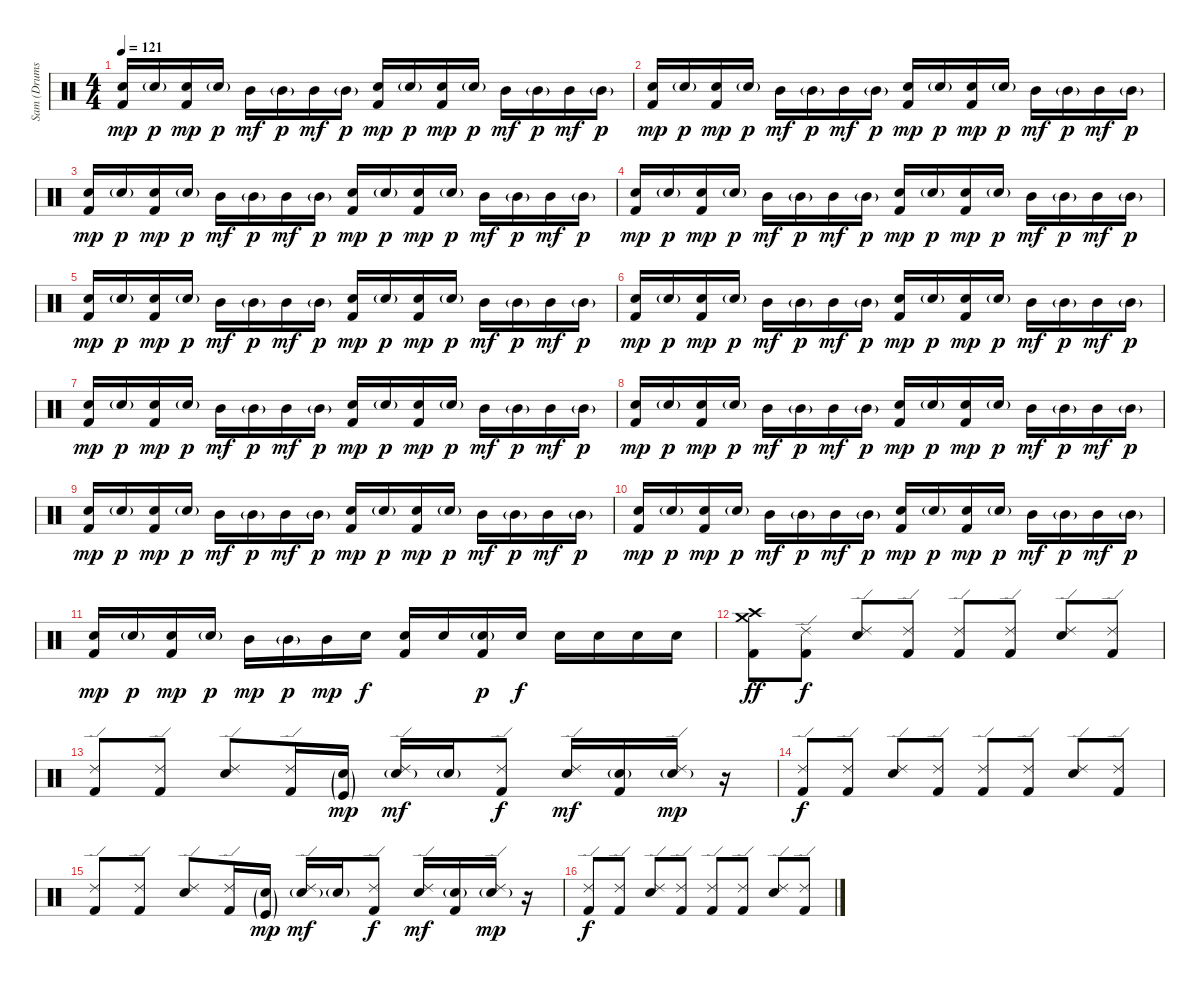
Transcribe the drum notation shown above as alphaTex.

\track ("Sam (Drums)" "Sam (Drums") {instrument percussion}
\staff {score}
\articulation defaults
\ts (4 4)
\tempo 121
\clef neutral
\ks c
("Snare (hit) 2" "Kick (hit) 2").16{dy mp} "Snare (hit) 2"{g}.16{dy p} ("Snare (hit) 2" "Kick (hit) 2").16{dy mp} "Snare (hit) 2"{g}.16{dy p} "Mid Tom (hit)".16{dy mf} "Mid Tom (hit)"{g}.16{dy p} "Mid Tom (hit)".16{dy mf} "Mid Tom (hit)"{g}.16{dy p} ("Snare (hit) 2" "Kick (hit) 2").16{dy mp} "Snare (hit) 2"{g}.16{dy p} ("Snare (hit) 2" "Kick (hit) 2").16{dy mp} "Snare (hit) 2"{g}.16{dy p} "Mid Tom (hit)".16{dy mf} "Mid Tom (hit)"{g}.16{dy p} "Mid Tom (hit)".16{dy mf} "Mid Tom (hit)"{g}.16{dy p} |
("Snare (hit) 2" "Kick (hit) 2").16{dy mp} "Snare (hit) 2"{g}.16{dy p} ("Snare (hit) 2" "Kick (hit) 2").16{dy mp} "Snare (hit) 2"{g}.16{dy p} "Mid Tom (hit)".16{dy mf} "Mid Tom (hit)"{g}.16{dy p} "Mid Tom (hit)".16{dy mf} "Mid Tom (hit)"{g}.16{dy p} ("Snare (hit) 2" "Kick (hit) 2").16{dy mp} "Snare (hit) 2"{g}.16{dy p} ("Snare (hit) 2" "Kick (hit) 2").16{dy mp} "Snare (hit) 2"{g}.16{dy p} "Mid Tom (hit)".16{dy mf} "Mid Tom (hit)"{g}.16{dy p} "Mid Tom (hit)".16{dy mf} "Mid Tom (hit)"{g}.16{dy p} |
("Snare (hit) 2" "Kick (hit) 2").16{dy mp} "Snare (hit) 2"{g}.16{dy p} ("Snare (hit) 2" "Kick (hit) 2").16{dy mp} "Snare (hit) 2"{g}.16{dy p} "Mid Tom (hit)".16{dy mf} "Mid Tom (hit)"{g}.16{dy p} "Mid Tom (hit)".16{dy mf} "Mid Tom (hit)"{g}.16{dy p} ("Snare (hit) 2" "Kick (hit) 2").16{dy mp} "Snare (hit) 2"{g}.16{dy p} ("Snare (hit) 2" "Kick (hit) 2").16{dy mp} "Snare (hit) 2"{g}.16{dy p} "Mid Tom (hit)".16{dy mf} "Mid Tom (hit)"{g}.16{dy p} "Mid Tom (hit)".16{dy mf} "Mid Tom (hit)"{g}.16{dy p} |
("Snare (hit) 2" "Kick (hit) 2").16{dy mp} "Snare (hit) 2"{g}.16{dy p} ("Snare (hit) 2" "Kick (hit) 2").16{dy mp} "Snare (hit) 2"{g}.16{dy p} "Mid Tom (hit)".16{dy mf} "Mid Tom (hit)"{g}.16{dy p} "Mid Tom (hit)".16{dy mf} "Mid Tom (hit)"{g}.16{dy p} ("Snare (hit) 2" "Kick (hit) 2").16{dy mp} "Snare (hit) 2"{g}.16{dy p} ("Snare (hit) 2" "Kick (hit) 2").16{dy mp} "Snare (hit) 2"{g}.16{dy p} "Mid Tom (hit)".16{dy mf} "Mid Tom (hit)"{g}.16{dy p} "Mid Tom (hit)".16{dy mf} "Mid Tom (hit)"{g}.16{dy p} |
("Snare (hit) 2" "Kick (hit) 2").16{dy mp} "Snare (hit) 2"{g}.16{dy p} ("Snare (hit) 2" "Kick (hit) 2").16{dy mp} "Snare (hit) 2"{g}.16{dy p} "Mid Tom (hit)".16{dy mf} "Mid Tom (hit)"{g}.16{dy p} "Mid Tom (hit)".16{dy mf} "Mid Tom (hit)"{g}.16{dy p} ("Snare (hit) 2" "Kick (hit) 2").16{dy mp} "Snare (hit) 2"{g}.16{dy p} ("Snare (hit) 2" "Kick (hit) 2").16{dy mp} "Snare (hit) 2"{g}.16{dy p} "Mid Tom (hit)".16{dy mf} "Mid Tom (hit)"{g}.16{dy p} "Mid Tom (hit)".16{dy mf} "Mid Tom (hit)"{g}.16{dy p} |
("Snare (hit) 2" "Kick (hit) 2").16{dy mp} "Snare (hit) 2"{g}.16{dy p} ("Snare (hit) 2" "Kick (hit) 2").16{dy mp} "Snare (hit) 2"{g}.16{dy p} "Mid Tom (hit)".16{dy mf} "Mid Tom (hit)"{g}.16{dy p} "Mid Tom (hit)".16{dy mf} "Mid Tom (hit)"{g}.16{dy p} ("Snare (hit) 2" "Kick (hit) 2").16{dy mp} "Snare (hit) 2"{g}.16{dy p} ("Snare (hit) 2" "Kick (hit) 2").16{dy mp} "Snare (hit) 2"{g}.16{dy p} "Mid Tom (hit)".16{dy mf} "Mid Tom (hit)"{g}.16{dy p} "Mid Tom (hit)".16{dy mf} "Mid Tom (hit)"{g}.16{dy p} |
("Snare (hit) 2" "Kick (hit) 2").16{dy mp} "Snare (hit) 2"{g}.16{dy p} ("Snare (hit) 2" "Kick (hit) 2").16{dy mp} "Snare (hit) 2"{g}.16{dy p} "Mid Tom (hit)".16{dy mf} "Mid Tom (hit)"{g}.16{dy p} "Mid Tom (hit)".16{dy mf} "Mid Tom (hit)"{g}.16{dy p} ("Snare (hit) 2" "Kick (hit) 2").16{dy mp} "Snare (hit) 2"{g}.16{dy p} ("Snare (hit) 2" "Kick (hit) 2").16{dy mp} "Snare (hit) 2"{g}.16{dy p} "Mid Tom (hit)".16{dy mf} "Mid Tom (hit)"{g}.16{dy p} "Mid Tom (hit)".16{dy mf} "Mid Tom (hit)"{g}.16{dy p} |
("Snare (hit) 2" "Kick (hit) 2").16{dy mp} "Snare (hit) 2"{g}.16{dy p} ("Snare (hit) 2" "Kick (hit) 2").16{dy mp} "Snare (hit) 2"{g}.16{dy p} "Mid Tom (hit)".16{dy mf} "Mid Tom (hit)"{g}.16{dy p} "Mid Tom (hit)".16{dy mf} "Mid Tom (hit)"{g}.16{dy p} ("Snare (hit) 2" "Kick (hit) 2").16{dy mp} "Snare (hit) 2"{g}.16{dy p} ("Snare (hit) 2" "Kick (hit) 2").16{dy mp} "Snare (hit) 2"{g}.16{dy p} "Mid Tom (hit)".16{dy mf} "Mid Tom (hit)"{g}.16{dy p} "Mid Tom (hit)".16{dy mf} "Mid Tom (hit)"{g}.16{dy p} |
("Snare (hit) 2" "Kick (hit) 2").16{dy mp} "Snare (hit) 2"{g}.16{dy p} ("Snare (hit) 2" "Kick (hit) 2").16{dy mp} "Snare (hit) 2"{g}.16{dy p} "Mid Tom (hit)".16{dy mf} "Mid Tom (hit)"{g}.16{dy p} "Mid Tom (hit)".16{dy mf} "Mid Tom (hit)"{g}.16{dy p} ("Snare (hit) 2" "Kick (hit) 2").16{dy mp} "Snare (hit) 2"{g}.16{dy p} ("Snare (hit) 2" "Kick (hit) 2").16{dy mp} "Snare (hit) 2"{g}.16{dy p} "Mid Tom (hit)".16{dy mf} "Mid Tom (hit)"{g}.16{dy p} "Mid Tom (hit)".16{dy mf} "Mid Tom (hit)"{g}.16{dy p} |
("Snare (hit) 2" "Kick (hit) 2").16{dy mp} "Snare (hit) 2"{g}.16{dy p} ("Snare (hit) 2" "Kick (hit) 2").16{dy mp} "Snare (hit) 2"{g}.16{dy p} "Mid Tom (hit)".16{dy mf} "Mid Tom (hit)"{g}.16{dy p} "Mid Tom (hit)".16{dy mf} "Mid Tom (hit)"{g}.16{dy p} ("Snare (hit) 2" "Kick (hit) 2").16{dy mp} "Snare (hit) 2"{g}.16{dy p} ("Snare (hit) 2" "Kick (hit) 2").16{dy mp} "Snare (hit) 2"{g}.16{dy p} "Mid Tom (hit)".16{dy mf} "Mid Tom (hit)"{g}.16{dy p} "Mid Tom (hit)".16{dy mf} "Mid Tom (hit)"{g}.16{dy p} |
("Snare (hit) 2" "Kick (hit) 2").16{dy mp} "Snare (hit) 2"{g}.16{dy p} ("Snare (hit) 2" "Kick (hit) 2").16{dy mp} "Snare (hit) 2"{g}.16{dy p} "Mid Tom (hit)".16{dy mp} "Mid Tom (hit)"{g}.16{dy p} "Mid Tom (hit)".16{dy mp} "Snare (hit) 2".16{dy f} ("Snare (hit) 2" "Kick (hit) 2").16 "Snare (hit) 2".16 ("Snare (hit) 2"{g} "Kick (hit) 2").16{dy p} "Snare (hit) 2".16{dy f} "Snare (hit) 2".16 "Snare (hit) 2".16 "Snare (hit) 2".16 "Snare (hit) 2".16 |
("Crash high (hit)" "Crash medium (hit)" "Kick (hit) 2").8{dy ff} ("Ride (edge) 2" "Kick (hit) 2").8{dy f} ("Ride (edge) 2" "Snare (hit) 2").8 ("Ride (edge) 2" "Kick (hit) 2").8 ("Ride (edge) 2" "Kick (hit) 2").8 ("Ride (edge) 2" "Kick (hit) 2").8 ("Ride (edge) 2" "Snare (hit) 2").8 ("Ride (edge) 2" "Kick (hit) 2").8 |
("Ride (edge) 2" "Kick (hit) 2").8 ("Ride (edge) 2" "Kick (hit) 2").8 ("Ride (edge) 2" "Snare (hit) 2").8 ("Ride (edge) 2" "Kick (hit) 2").16 ("Snare (hit) 2"{g} "Kick (hit)"{g}).16{dy mp} ("Ride (edge) 2" "Snare (hit) 2"{g}).16{dy mf} "Snare (hit) 2"{g}.16 ("Ride (edge) 2" "Kick (hit) 2").8{dy f} ("Ride (edge) 2" "Snare (hit) 2").16{dy mf} ("Snare (hit) 2"{g} "Kick (hit) 2").16 ("Ride (edge) 2" "Snare (hit) 2"{g}).16{dy mp} r.16 |
("Ride (edge) 2" "Kick (hit) 2").8{dy f} ("Ride (edge) 2" "Kick (hit) 2").8 ("Ride (edge) 2" "Snare (hit) 2").8 ("Ride (edge) 2" "Kick (hit) 2").8 ("Ride (edge) 2" "Kick (hit) 2").8 ("Ride (edge) 2" "Kick (hit) 2").8 ("Ride (edge) 2" "Snare (hit) 2").8 ("Ride (edge) 2" "Kick (hit) 2").8 |
("Ride (edge) 2" "Kick (hit) 2").8 ("Ride (edge) 2" "Kick (hit) 2").8 ("Ride (edge) 2" "Snare (hit) 2").8 ("Ride (edge) 2" "Kick (hit) 2").16 ("Snare (hit) 2"{g} "Kick (hit)"{g}).16{dy mp} ("Ride (edge) 2" "Snare (hit) 2"{g}).16{dy mf} "Snare (hit) 2"{g}.16 ("Ride (edge) 2" "Kick (hit) 2").8{dy f} ("Ride (edge) 2" "Snare (hit) 2").16{dy mf} ("Snare (hit) 2"{g} "Kick (hit) 2").16 ("Ride (edge) 2" "Snare (hit) 2"{g}).16{dy mp} r.16 |
("Ride (edge) 2" "Kick (hit) 2").8{dy f} ("Ride (edge) 2" "Kick (hit) 2").8 ("Ride (edge) 2" "Snare (hit) 2").8 ("Ride (edge) 2" "Kick (hit) 2").8 ("Ride (edge) 2" "Kick (hit) 2").8 ("Ride (edge) 2" "Kick (hit) 2").8 ("Ride (edge) 2" "Snare (hit) 2").8 ("Ride (edge) 2" "Kick (hit) 2").8
